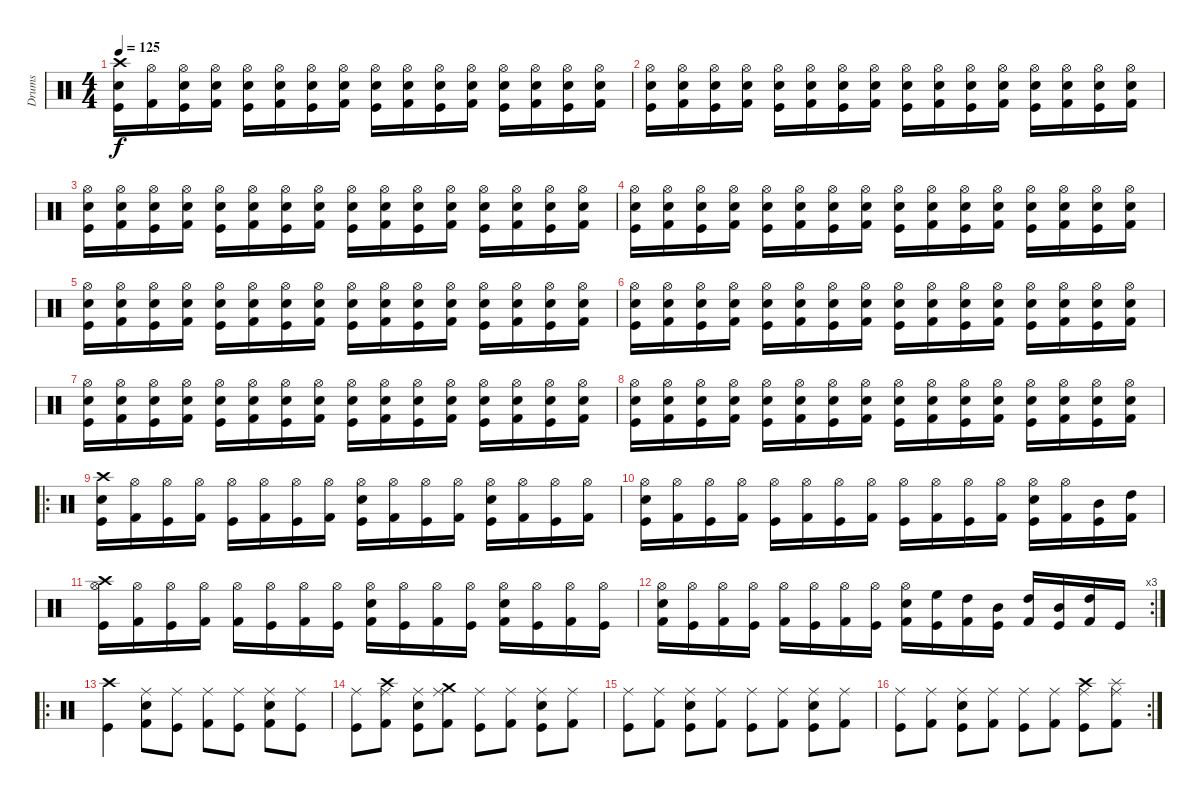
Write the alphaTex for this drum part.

\track ("Drums" "Drums") {instrument percussion}
\staff {score}
\articulation defaults
\ts (4 4)
\tempo 125
\clef neutral
\ks c
("Kick (hit)" "Crash high (hit)" "Electric Snare (hit)").16{dy f} ("Kick (hit) 2" "Hi-Hat (open)").16 ("Kick (hit)" "Hi-Hat (open)" "Electric Snare (hit)").16 ("Kick (hit) 2" "Hi-Hat (open)" "Electric Snare (hit)").16 ("Kick (hit)" "Hi-Hat (open)" "Electric Snare (hit)").16 ("Kick (hit) 2" "Hi-Hat (open)" "Electric Snare (hit)").16 ("Kick (hit)" "Hi-Hat (open)" "Electric Snare (hit)").16 ("Kick (hit) 2" "Hi-Hat (open)" "Electric Snare (hit)").16 ("Kick (hit)" "Hi-Hat (open)" "Electric Snare (hit)").16 ("Kick (hit) 2" "Hi-Hat (open)" "Electric Snare (hit)").16 ("Kick (hit)" "Hi-Hat (open)" "Electric Snare (hit)").16 ("Kick (hit) 2" "Hi-Hat (open)" "Electric Snare (hit)").16 ("Kick (hit)" "Hi-Hat (open)" "Electric Snare (hit)").16 ("Kick (hit) 2" "Hi-Hat (open)" "Electric Snare (hit)").16 ("Kick (hit)" "Hi-Hat (open)" "Electric Snare (hit)").16 ("Kick (hit) 2" "Hi-Hat (open)" "Electric Snare (hit)").16 |
("Kick (hit)" "Hi-Hat (open)" "Electric Snare (hit)").16 ("Kick (hit) 2" "Hi-Hat (open)" "Electric Snare (hit)").16 ("Kick (hit)" "Hi-Hat (open)" "Electric Snare (hit)").16 ("Kick (hit) 2" "Hi-Hat (open)" "Electric Snare (hit)").16 ("Kick (hit)" "Hi-Hat (open)" "Electric Snare (hit)").16 ("Kick (hit) 2" "Hi-Hat (open)" "Electric Snare (hit)").16 ("Kick (hit)" "Hi-Hat (open)" "Electric Snare (hit)").16 ("Kick (hit) 2" "Hi-Hat (open)" "Electric Snare (hit)").16 ("Kick (hit)" "Hi-Hat (open)" "Electric Snare (hit)").16 ("Kick (hit) 2" "Hi-Hat (open)" "Electric Snare (hit)").16 ("Kick (hit)" "Hi-Hat (open)" "Electric Snare (hit)").16 ("Kick (hit) 2" "Hi-Hat (open)" "Electric Snare (hit)").16 ("Kick (hit)" "Hi-Hat (open)" "Electric Snare (hit)").16 ("Kick (hit) 2" "Hi-Hat (open)" "Electric Snare (hit)").16 ("Kick (hit)" "Hi-Hat (open)" "Electric Snare (hit)").16 ("Kick (hit) 2" "Hi-Hat (open)" "Electric Snare (hit)").16 |
("Kick (hit)" "Hi-Hat (open)" "Electric Snare (hit)").16 ("Kick (hit) 2" "Hi-Hat (open)" "Electric Snare (hit)").16 ("Kick (hit)" "Hi-Hat (open)" "Electric Snare (hit)").16 ("Kick (hit) 2" "Hi-Hat (open)" "Electric Snare (hit)").16 ("Kick (hit)" "Hi-Hat (open)" "Electric Snare (hit)").16 ("Kick (hit) 2" "Hi-Hat (open)" "Electric Snare (hit)").16 ("Kick (hit)" "Hi-Hat (open)" "Electric Snare (hit)").16 ("Kick (hit) 2" "Hi-Hat (open)" "Electric Snare (hit)").16 ("Kick (hit)" "Hi-Hat (open)" "Electric Snare (hit)").16 ("Kick (hit) 2" "Hi-Hat (open)" "Electric Snare (hit)").16 ("Kick (hit)" "Hi-Hat (open)" "Electric Snare (hit)").16 ("Kick (hit) 2" "Hi-Hat (open)" "Electric Snare (hit)").16 ("Kick (hit)" "Hi-Hat (open)" "Electric Snare (hit)").16 ("Kick (hit) 2" "Hi-Hat (open)" "Electric Snare (hit)").16 ("Kick (hit)" "Hi-Hat (open)" "Electric Snare (hit)").16 ("Kick (hit) 2" "Hi-Hat (open)" "Electric Snare (hit)").16 |
("Kick (hit)" "Hi-Hat (open)" "Electric Snare (hit)").16 ("Kick (hit) 2" "Hi-Hat (open)" "Electric Snare (hit)").16 ("Kick (hit)" "Hi-Hat (open)" "Electric Snare (hit)").16 ("Kick (hit) 2" "Hi-Hat (open)" "Electric Snare (hit)").16 ("Kick (hit)" "Hi-Hat (open)" "Electric Snare (hit)").16 ("Kick (hit) 2" "Hi-Hat (open)" "Electric Snare (hit)").16 ("Kick (hit)" "Hi-Hat (open)" "Electric Snare (hit)").16 ("Kick (hit) 2" "Hi-Hat (open)" "Electric Snare (hit)").16 ("Kick (hit)" "Hi-Hat (open)" "Electric Snare (hit)").16 ("Kick (hit) 2" "Hi-Hat (open)" "Electric Snare (hit)").16 ("Kick (hit)" "Hi-Hat (open)" "Electric Snare (hit)").16 ("Kick (hit) 2" "Hi-Hat (open)" "Electric Snare (hit)").16 ("Kick (hit)" "Hi-Hat (open)" "Electric Snare (hit)").16 ("Kick (hit) 2" "Hi-Hat (open)" "Electric Snare (hit)").16 ("Kick (hit)" "Hi-Hat (open)" "Electric Snare (hit)").16 ("Kick (hit) 2" "Hi-Hat (open)" "Electric Snare (hit)").16 |
("Kick (hit)" "Hi-Hat (open)" "Electric Snare (hit)").16 ("Kick (hit) 2" "Hi-Hat (open)" "Electric Snare (hit)").16 ("Kick (hit)" "Hi-Hat (open)" "Electric Snare (hit)").16 ("Kick (hit) 2" "Hi-Hat (open)" "Electric Snare (hit)").16 ("Kick (hit)" "Hi-Hat (open)" "Electric Snare (hit)").16 ("Kick (hit) 2" "Hi-Hat (open)" "Electric Snare (hit)").16 ("Kick (hit)" "Hi-Hat (open)" "Electric Snare (hit)").16 ("Kick (hit) 2" "Hi-Hat (open)" "Electric Snare (hit)").16 ("Kick (hit)" "Hi-Hat (open)" "Electric Snare (hit)").16 ("Kick (hit) 2" "Hi-Hat (open)" "Electric Snare (hit)").16 ("Kick (hit)" "Hi-Hat (open)" "Electric Snare (hit)").16 ("Kick (hit) 2" "Hi-Hat (open)" "Electric Snare (hit)").16 ("Kick (hit)" "Hi-Hat (open)" "Electric Snare (hit)").16 ("Kick (hit) 2" "Hi-Hat (open)" "Electric Snare (hit)").16 ("Kick (hit)" "Hi-Hat (open)" "Electric Snare (hit)").16 ("Kick (hit) 2" "Hi-Hat (open)" "Electric Snare (hit)").16 |
("Kick (hit)" "Hi-Hat (open)" "Electric Snare (hit)").16 ("Kick (hit) 2" "Hi-Hat (open)" "Electric Snare (hit)").16 ("Kick (hit)" "Hi-Hat (open)" "Electric Snare (hit)").16 ("Kick (hit) 2" "Hi-Hat (open)" "Electric Snare (hit)").16 ("Kick (hit)" "Hi-Hat (open)" "Electric Snare (hit)").16 ("Kick (hit) 2" "Hi-Hat (open)" "Electric Snare (hit)").16 ("Kick (hit)" "Hi-Hat (open)" "Electric Snare (hit)").16 ("Kick (hit) 2" "Hi-Hat (open)" "Electric Snare (hit)").16 ("Kick (hit)" "Hi-Hat (open)" "Electric Snare (hit)").16 ("Kick (hit) 2" "Hi-Hat (open)" "Electric Snare (hit)").16 ("Kick (hit)" "Hi-Hat (open)" "Electric Snare (hit)").16 ("Kick (hit) 2" "Hi-Hat (open)" "Electric Snare (hit)").16 ("Kick (hit)" "Hi-Hat (open)" "Electric Snare (hit)").16 ("Kick (hit) 2" "Hi-Hat (open)" "Electric Snare (hit)").16 ("Kick (hit)" "Hi-Hat (open)" "Electric Snare (hit)").16 ("Kick (hit) 2" "Hi-Hat (open)" "Electric Snare (hit)").16 |
("Kick (hit)" "Hi-Hat (open)" "Electric Snare (hit)").16 ("Kick (hit) 2" "Hi-Hat (open)" "Electric Snare (hit)").16 ("Kick (hit)" "Hi-Hat (open)" "Electric Snare (hit)").16 ("Kick (hit) 2" "Hi-Hat (open)" "Electric Snare (hit)").16 ("Kick (hit)" "Hi-Hat (open)" "Electric Snare (hit)").16 ("Kick (hit) 2" "Hi-Hat (open)" "Electric Snare (hit)").16 ("Kick (hit)" "Hi-Hat (open)" "Electric Snare (hit)").16 ("Kick (hit) 2" "Hi-Hat (open)" "Electric Snare (hit)").16 ("Kick (hit)" "Hi-Hat (open)" "Electric Snare (hit)").16 ("Kick (hit) 2" "Hi-Hat (open)" "Electric Snare (hit)").16 ("Kick (hit)" "Hi-Hat (open)" "Electric Snare (hit)").16 ("Kick (hit) 2" "Hi-Hat (open)" "Electric Snare (hit)").16 ("Kick (hit)" "Hi-Hat (open)" "Electric Snare (hit)").16 ("Kick (hit) 2" "Hi-Hat (open)" "Electric Snare (hit)").16 ("Kick (hit)" "Hi-Hat (open)" "Electric Snare (hit)").16 ("Kick (hit) 2" "Hi-Hat (open)" "Electric Snare (hit)").16 |
("Kick (hit)" "Hi-Hat (open)" "Electric Snare (hit)").16 ("Kick (hit) 2" "Hi-Hat (open)" "Electric Snare (hit)").16 ("Kick (hit)" "Hi-Hat (open)" "Electric Snare (hit)").16 ("Kick (hit) 2" "Hi-Hat (open)" "Electric Snare (hit)").16 ("Kick (hit)" "Hi-Hat (open)" "Electric Snare (hit)").16 ("Kick (hit) 2" "Hi-Hat (open)" "Electric Snare (hit)").16 ("Kick (hit)" "Hi-Hat (open)" "Electric Snare (hit)").16 ("Kick (hit) 2" "Hi-Hat (open)" "Electric Snare (hit)").16 ("Kick (hit)" "Hi-Hat (open)" "Electric Snare (hit)").16 ("Kick (hit) 2" "Hi-Hat (open)" "Electric Snare (hit)").16 ("Kick (hit)" "Hi-Hat (open)" "Electric Snare (hit)").16 ("Kick (hit) 2" "Hi-Hat (open)" "Electric Snare (hit)").16 ("Kick (hit)" "Hi-Hat (open)" "Electric Snare (hit)").16 ("Kick (hit) 2" "Hi-Hat (open)" "Electric Snare (hit)").16 ("Kick (hit)" "Hi-Hat (open)" "Electric Snare (hit)").16 ("Kick (hit) 2" "Hi-Hat (open)" "Electric Snare (hit)").16 |
\ro
("Kick (hit)" "Crash high (hit)" "Electric Snare (hit)").16 ("Kick (hit) 2" "Hi-Hat (open)").16 ("Kick (hit)" "Hi-Hat (open)").16 ("Kick (hit) 2" "Hi-Hat (open)").16 ("Kick (hit)" "Hi-Hat (open)").16 ("Kick (hit) 2" "Hi-Hat (open)").16 ("Kick (hit)" "Hi-Hat (open)").16 ("Kick (hit) 2" "Hi-Hat (open)").16 ("Kick (hit)" "Hi-Hat (open)" "Electric Snare (hit)").16 ("Kick (hit) 2" "Hi-Hat (open)").16 ("Kick (hit)" "Hi-Hat (open)").16 ("Kick (hit) 2" "Hi-Hat (open)").16 ("Kick (hit)" "Hi-Hat (open)" "Electric Snare (hit)").16 ("Kick (hit) 2" "Hi-Hat (open)").16 ("Kick (hit)" "Hi-Hat (open)").16 ("Kick (hit) 2" "Hi-Hat (open)").16 |
("Kick (hit)" "Hi-Hat (open)" "Electric Snare (hit)").16 ("Kick (hit) 2" "Hi-Hat (open)").16 ("Kick (hit)" "Hi-Hat (open)").16 ("Kick (hit) 2" "Hi-Hat (open)").16 ("Kick (hit)" "Hi-Hat (open)").16 ("Kick (hit) 2" "Hi-Hat (open)").16 ("Kick (hit)" "Hi-Hat (open)").16 ("Kick (hit) 2" "Hi-Hat (open)").16 ("Kick (hit)" "Hi-Hat (open)").16 ("Kick (hit) 2" "Hi-Hat (open)").16 ("Kick (hit)" "Hi-Hat (open)").16 ("Kick (hit) 2" "Hi-Hat (open)").16 ("Kick (hit)" "Hi-Hat (open)" "Electric Snare (hit)").16 ("Kick (hit) 2" "Hi-Hat (open)").16 ("Kick (hit)" "Mid Tom (hit)").16 ("Kick (hit) 2" "High Tom (hit)").16 |
("Kick (hit)" "Hi-Hat (open)" "Crash high (hit)").16 ("Kick (hit) 2" "Hi-Hat (open)").16 ("Kick (hit)" "Hi-Hat (open)").16 ("Kick (hit) 2" "Hi-Hat (open)").16 ("Kick (hit) 2" "Hi-Hat (open)").16 ("Kick (hit)" "Hi-Hat (open)").16 ("Kick (hit) 2" "Hi-Hat (open)").16 ("Kick (hit)" "Hi-Hat (open)").16 ("Kick (hit) 2" "Hi-Hat (open)" "Electric Snare (hit)").16 ("Kick (hit)" "Hi-Hat (open)").16 ("Kick (hit) 2" "Hi-Hat (open)").16 ("Kick (hit)" "Hi-Hat (open)").16 ("Kick (hit) 2" "Hi-Hat (open)" "Electric Snare (hit)").16 ("Kick (hit)" "Hi-Hat (open)").16 ("Kick (hit) 2" "Hi-Hat (open)").16 ("Kick (hit)" "Hi-Hat (open)").16 |
\rc 3
("Kick (hit) 2" "Hi-Hat (open)" "Electric Snare (hit)").16 ("Kick (hit)" "Hi-Hat (open)").16 ("Kick (hit) 2" "Hi-Hat (open)").16 ("Kick (hit)" "Hi-Hat (open)").16 ("Kick (hit) 2" "Hi-Hat (open)").16 ("Kick (hit)" "Hi-Hat (open)").16 ("Kick (hit) 2" "Hi-Hat (open)").16 ("Kick (hit)" "Hi-Hat (open)").16 ("Kick (hit) 2" "Hi-Hat (open)" "Electric Snare (hit)").16 ("Kick (hit)" "High Floor Tom (hit)").16 ("Kick (hit) 2" "High Tom (hit)").16 ("Kick (hit)" "Mid Tom (hit)").16 ("Kick (hit) 2" "High Tom (hit)").16 ("Kick (hit)" "Mid Tom (hit)").16 ("Kick (hit) 2" "High Tom (hit)").16 "Kick (hit)".16 |
\ro
("Kick (hit)" "Crash high (hit)").4 ("Kick (hit) 2" "Ride (middle)" "Electric Snare (hit)").8 ("Kick (hit)" "Ride (middle)").8 ("Kick (hit) 2" "Ride (middle)").8 ("Kick (hit)" "Ride (middle)").8 ("Kick (hit) 2" "Ride (middle)" "Electric Snare (hit)").8 ("Kick (hit)" "Ride (middle)").8 |
("Kick (hit)" "Ride (middle)").8 ("Kick (hit) 2" "Ride (middle)" "Crash high (hit)").8 ("Kick (hit)" "Ride (middle)" "Electric Snare (hit)").8 ("Kick (hit) 2" "Ride (middle)" "Crash medium (hit)").8 ("Kick (hit)" "Ride (middle)").8 ("Kick (hit) 2" "Ride (middle)").8 ("Kick (hit)" "Ride (middle)" "Electric Snare (hit)").8 ("Kick (hit) 2" "Ride (middle)").8 |
("Kick (hit)" "Ride (middle)").8 ("Kick (hit) 2" "Ride (middle)").8 ("Kick (hit)" "Ride (middle)" "Electric Snare (hit)").8 ("Kick (hit) 2" "Ride (middle)").8 ("Kick (hit)" "Ride (middle)").8 ("Kick (hit) 2" "Ride (middle)").8 ("Kick (hit)" "Ride (middle)" "Electric Snare (hit)").8 ("Kick (hit) 2" "Ride (middle)").8 |
\rc 2
("Kick (hit)" "Ride (middle)").8 ("Kick (hit) 2" "Ride (middle)").8 ("Kick (hit)" "Ride (middle)" "Electric Snare (hit)").8 ("Kick (hit) 2" "Ride (middle)").8 ("Kick (hit)" "Ride (middle)").8 ("Kick (hit) 2" "Ride (middle)").8 ("Kick (hit)" "Ride (middle)" "Crash high (hit)").8 ("Kick (hit) 2" "Ride (middle)" "Splash (hit)").8
